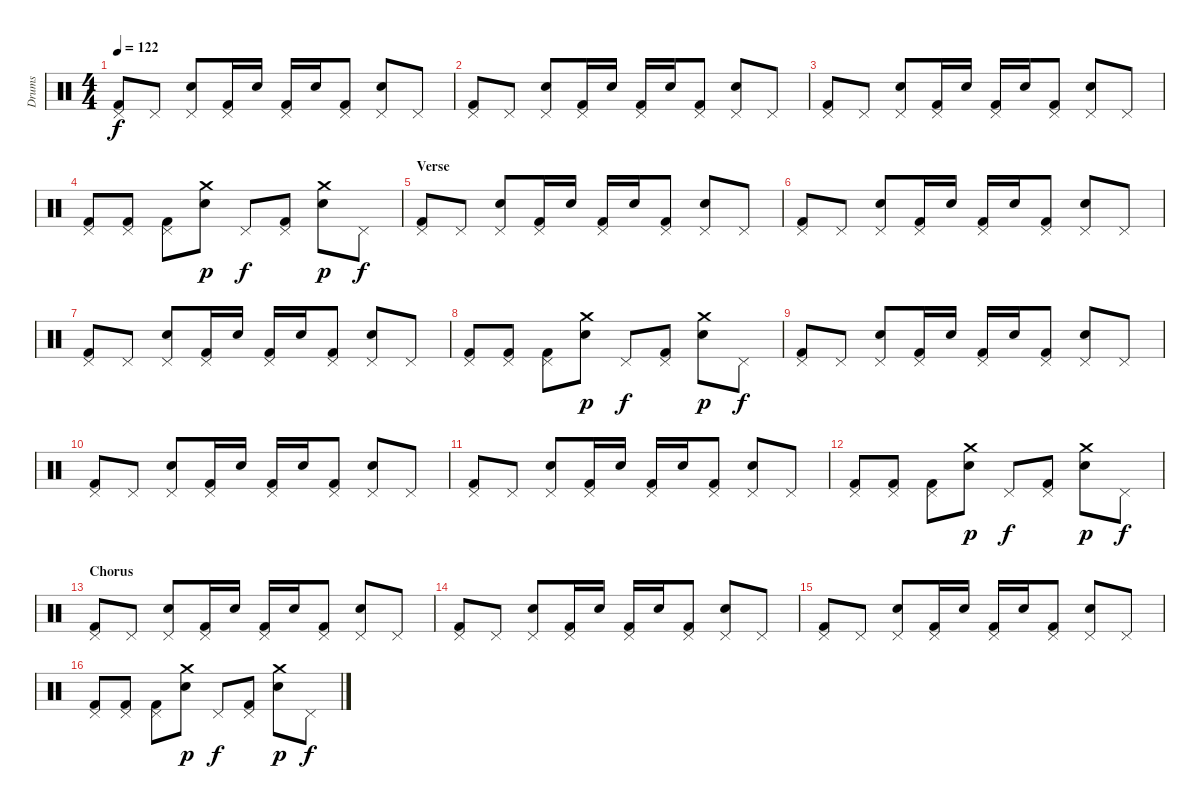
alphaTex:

\track ("Drums" "Drums") {instrument percussion}
\staff {score}
\articulation defaults
\ts (4 4)
\tempo 122
\clef neutral
\ks c
("Pedal Hi-Hat (hit)" "Kick (hit) 2").8{dy f} "Pedal Hi-Hat (hit)".8 ("Pedal Hi-Hat (hit)" "Electric Snare (hit)").8 ("Pedal Hi-Hat (hit)" "Kick (hit) 2").16 "Electric Snare (hit)".16 ("Pedal Hi-Hat (hit)" "Kick (hit) 2").16 "Electric Snare (hit)".16 ("Pedal Hi-Hat (hit)" "Kick (hit) 2").8 ("Pedal Hi-Hat (hit)" "Electric Snare (hit)").8 "Pedal Hi-Hat (hit)".8 |
("Pedal Hi-Hat (hit)" "Kick (hit) 2").8 "Pedal Hi-Hat (hit)".8 ("Pedal Hi-Hat (hit)" "Electric Snare (hit)").8 ("Pedal Hi-Hat (hit)" "Kick (hit) 2").16 "Electric Snare (hit)".16 ("Pedal Hi-Hat (hit)" "Kick (hit) 2").16 "Electric Snare (hit)".16 ("Pedal Hi-Hat (hit)" "Kick (hit) 2").8 ("Pedal Hi-Hat (hit)" "Electric Snare (hit)").8 "Pedal Hi-Hat (hit)".8 |
("Pedal Hi-Hat (hit)" "Kick (hit) 2").8 "Pedal Hi-Hat (hit)".8 ("Pedal Hi-Hat (hit)" "Electric Snare (hit)").8 ("Pedal Hi-Hat (hit)" "Kick (hit) 2").16 "Electric Snare (hit)".16 ("Pedal Hi-Hat (hit)" "Kick (hit) 2").16 "Electric Snare (hit)".16 ("Pedal Hi-Hat (hit)" "Kick (hit) 2").8 ("Pedal Hi-Hat (hit)" "Electric Snare (hit)").8 "Pedal Hi-Hat (hit)".8 |
("Pedal Hi-Hat (hit)" "Kick (hit) 2").8 ("Pedal Hi-Hat (hit)" "Kick (hit) 2").8 ("Pedal Hi-Hat (hit)" "Kick (hit) 2").8 ("Crash medium (hit)" "Electric Snare (hit)").8{dy p} "Pedal Hi-Hat (hit)".8{dy f} ("Pedal Hi-Hat (hit)" "Kick (hit) 2").8 ("Crash medium (hit)" "Electric Snare (hit)").8{dy p} "Pedal Hi-Hat (hit)".8{dy f} |
\section ("" "Verse")
("Pedal Hi-Hat (hit)" "Kick (hit) 2").8 "Pedal Hi-Hat (hit)".8 ("Pedal Hi-Hat (hit)" "Electric Snare (hit)").8 ("Pedal Hi-Hat (hit)" "Kick (hit) 2").16 "Electric Snare (hit)".16 ("Pedal Hi-Hat (hit)" "Kick (hit) 2").16 "Electric Snare (hit)".16 ("Pedal Hi-Hat (hit)" "Kick (hit) 2").8 ("Pedal Hi-Hat (hit)" "Electric Snare (hit)").8 "Pedal Hi-Hat (hit)".8 |
("Pedal Hi-Hat (hit)" "Kick (hit) 2").8 "Pedal Hi-Hat (hit)".8 ("Pedal Hi-Hat (hit)" "Electric Snare (hit)").8 ("Pedal Hi-Hat (hit)" "Kick (hit) 2").16 "Electric Snare (hit)".16 ("Pedal Hi-Hat (hit)" "Kick (hit) 2").16 "Electric Snare (hit)".16 ("Pedal Hi-Hat (hit)" "Kick (hit) 2").8 ("Pedal Hi-Hat (hit)" "Electric Snare (hit)").8 "Pedal Hi-Hat (hit)".8 |
("Pedal Hi-Hat (hit)" "Kick (hit) 2").8 "Pedal Hi-Hat (hit)".8 ("Pedal Hi-Hat (hit)" "Electric Snare (hit)").8 ("Pedal Hi-Hat (hit)" "Kick (hit) 2").16 "Electric Snare (hit)".16 ("Pedal Hi-Hat (hit)" "Kick (hit) 2").16 "Electric Snare (hit)".16 ("Pedal Hi-Hat (hit)" "Kick (hit) 2").8 ("Pedal Hi-Hat (hit)" "Electric Snare (hit)").8 "Pedal Hi-Hat (hit)".8 |
("Pedal Hi-Hat (hit)" "Kick (hit) 2").8 ("Pedal Hi-Hat (hit)" "Kick (hit) 2").8 ("Pedal Hi-Hat (hit)" "Kick (hit) 2").8 ("Crash medium (hit)" "Electric Snare (hit)").8{dy p} "Pedal Hi-Hat (hit)".8{dy f} ("Pedal Hi-Hat (hit)" "Kick (hit) 2").8 ("Crash medium (hit)" "Electric Snare (hit)").8{dy p} "Pedal Hi-Hat (hit)".8{dy f} |
("Pedal Hi-Hat (hit)" "Kick (hit) 2").8 "Pedal Hi-Hat (hit)".8 ("Pedal Hi-Hat (hit)" "Electric Snare (hit)").8 ("Pedal Hi-Hat (hit)" "Kick (hit) 2").16 "Electric Snare (hit)".16 ("Pedal Hi-Hat (hit)" "Kick (hit) 2").16 "Electric Snare (hit)".16 ("Pedal Hi-Hat (hit)" "Kick (hit) 2").8 ("Pedal Hi-Hat (hit)" "Electric Snare (hit)").8 "Pedal Hi-Hat (hit)".8 |
("Pedal Hi-Hat (hit)" "Kick (hit) 2").8 "Pedal Hi-Hat (hit)".8 ("Pedal Hi-Hat (hit)" "Electric Snare (hit)").8 ("Pedal Hi-Hat (hit)" "Kick (hit) 2").16 "Electric Snare (hit)".16 ("Pedal Hi-Hat (hit)" "Kick (hit) 2").16 "Electric Snare (hit)".16 ("Pedal Hi-Hat (hit)" "Kick (hit) 2").8 ("Pedal Hi-Hat (hit)" "Electric Snare (hit)").8 "Pedal Hi-Hat (hit)".8 |
("Pedal Hi-Hat (hit)" "Kick (hit) 2").8 "Pedal Hi-Hat (hit)".8 ("Pedal Hi-Hat (hit)" "Electric Snare (hit)").8 ("Pedal Hi-Hat (hit)" "Kick (hit) 2").16 "Electric Snare (hit)".16 ("Pedal Hi-Hat (hit)" "Kick (hit) 2").16 "Electric Snare (hit)".16 ("Pedal Hi-Hat (hit)" "Kick (hit) 2").8 ("Pedal Hi-Hat (hit)" "Electric Snare (hit)").8 "Pedal Hi-Hat (hit)".8 |
("Pedal Hi-Hat (hit)" "Kick (hit) 2").8 ("Pedal Hi-Hat (hit)" "Kick (hit) 2").8 ("Pedal Hi-Hat (hit)" "Kick (hit) 2").8 ("Crash medium (hit)" "Electric Snare (hit)").8{dy p} "Pedal Hi-Hat (hit)".8{dy f} ("Pedal Hi-Hat (hit)" "Kick (hit) 2").8 ("Crash medium (hit)" "Electric Snare (hit)").8{dy p} "Pedal Hi-Hat (hit)".8{dy f} |
\section ("" "Chorus")
("Pedal Hi-Hat (hit)" "Kick (hit) 2").8 "Pedal Hi-Hat (hit)".8 ("Pedal Hi-Hat (hit)" "Electric Snare (hit)").8 ("Pedal Hi-Hat (hit)" "Kick (hit) 2").16 "Electric Snare (hit)".16 ("Pedal Hi-Hat (hit)" "Kick (hit) 2").16 "Electric Snare (hit)".16 ("Pedal Hi-Hat (hit)" "Kick (hit) 2").8 ("Pedal Hi-Hat (hit)" "Electric Snare (hit)").8 "Pedal Hi-Hat (hit)".8 |
("Pedal Hi-Hat (hit)" "Kick (hit) 2").8 "Pedal Hi-Hat (hit)".8 ("Pedal Hi-Hat (hit)" "Electric Snare (hit)").8 ("Pedal Hi-Hat (hit)" "Kick (hit) 2").16 "Electric Snare (hit)".16 ("Pedal Hi-Hat (hit)" "Kick (hit) 2").16 "Electric Snare (hit)".16 ("Pedal Hi-Hat (hit)" "Kick (hit) 2").8 ("Pedal Hi-Hat (hit)" "Electric Snare (hit)").8 "Pedal Hi-Hat (hit)".8 |
("Pedal Hi-Hat (hit)" "Kick (hit) 2").8 "Pedal Hi-Hat (hit)".8 ("Pedal Hi-Hat (hit)" "Electric Snare (hit)").8 ("Pedal Hi-Hat (hit)" "Kick (hit) 2").16 "Electric Snare (hit)".16 ("Pedal Hi-Hat (hit)" "Kick (hit) 2").16 "Electric Snare (hit)".16 ("Pedal Hi-Hat (hit)" "Kick (hit) 2").8 ("Pedal Hi-Hat (hit)" "Electric Snare (hit)").8 "Pedal Hi-Hat (hit)".8 |
("Pedal Hi-Hat (hit)" "Kick (hit) 2").8 ("Pedal Hi-Hat (hit)" "Kick (hit) 2").8 ("Pedal Hi-Hat (hit)" "Kick (hit) 2").8 ("Crash medium (hit)" "Electric Snare (hit)").8{dy p} "Pedal Hi-Hat (hit)".8{dy f} ("Pedal Hi-Hat (hit)" "Kick (hit) 2").8 ("Crash medium (hit)" "Electric Snare (hit)").8{dy p} "Pedal Hi-Hat (hit)".8{dy f}
